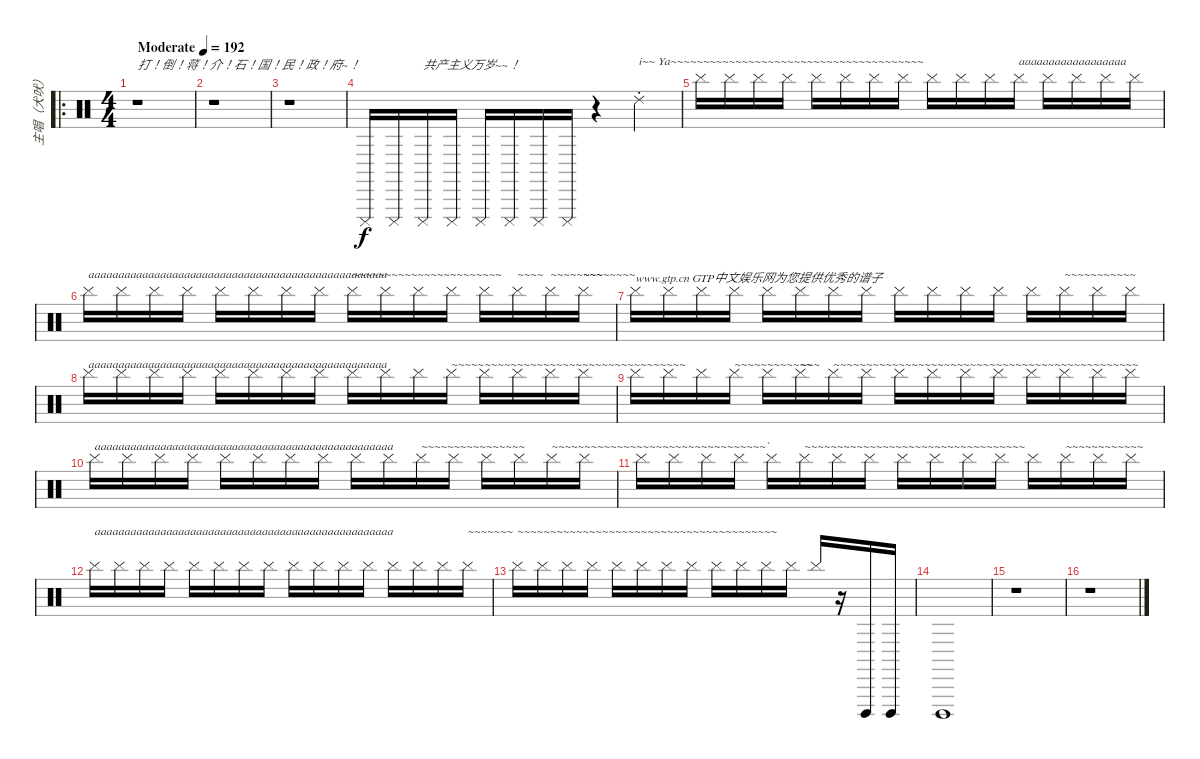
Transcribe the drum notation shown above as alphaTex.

\track ("主唱（犬吠）" "主唱（犬吠）") {instrument percussion}
\staff {score}
\articulation defaults
\ro
\ts (4 4)
\tempo (192 "Moderate")
\clef neutral
\ks c
r.1{txt "打！倒！蒋！介！石！国！民！政！府~！" dy f} |
r.1 |
r.1 |
"Cuica (mute)".16 "Cuica (mute)".16 "Cuica (mute)".16{txt "共产主义万岁~~！"} "Cuica (mute)".16 "Cuica (mute)".16 "Cuica (mute)".16 "Cuica (mute)".16 "Cuica (mute)".16 r.4 "Ride (choke) 2".4{txt "i~~ Ya~~~~~~~~~~~~~~~~~~~~~~~~~~~~~~~~~~~~~~~"} |
"Cymbal (hit)".16 "Cymbal (hit)".16 "Cymbal (hit)".16 "Cymbal (hit)".16 "Cymbal (hit)".16 "Cymbal (hit)".16 "Cymbal (hit)".16 "Cymbal (hit)".16 "Cymbal (hit)".16 "Cymbal (hit)".16 "Cymbal (hit)".16 "Cymbal (hit)".16{txt "aaaaaaaaaaaaaaaaaa"} "Cymbal (hit)".16 "Cymbal (hit)".16 "Cymbal (hit)".16 "Cymbal (hit)".16 |
"Cymbal (hit)".16{txt "aaaaaaaaaaaaaaaaaaaaaaaaaaaaaaaaaaaaaaaaaaaaaaaaaa"} "Cymbal (hit)".16 "Cymbal (hit)".16 "Cymbal (hit)".16 "Cymbal (hit)".16 "Cymbal (hit)".16 "Cymbal (hit)".16 "Cymbal (hit)".16 "Cymbal (hit)".16{txt "~~~~~~~~~~~~~~~~~~~~~~~"} "Cymbal (hit)".16 "Cymbal (hit)".16 "Cymbal (hit)".16 "Cymbal (hit)".16 "Cymbal (hit)".16{txt "~~~~"} "Cymbal (hit)".16{txt "~~~~~~~~"} "Cymbal (hit)".16{txt "~~~~~~~~"} |
"Cymbal (hit)".16{txt "www.gtp.cn GTP中文娱乐网为您提供优秀的谱子"} "Cymbal (hit)".16 "Cymbal (hit)".16 "Cymbal (hit)".16 "Cymbal (hit)".16 "Cymbal (hit)".16 "Cymbal (hit)".16 "Cymbal (hit)".16 "Cymbal (hit)".16 "Cymbal (hit)".16 "Cymbal (hit)".16 "Cymbal (hit)".16 "Cymbal (hit)".16 "Cymbal (hit)".16{txt "~~~~~~~~~~~"} "Cymbal (hit)".16 "Cymbal (hit)".16 |
"Cymbal (hit)".16{txt "aaaaaaaaaaaaaaaaaaaaaaaaaaaaaaaaaaaaaaaaaaaaaaaaaa"} "Cymbal (hit)".16 "Cymbal (hit)".16 "Cymbal (hit)".16 "Cymbal (hit)".16 "Cymbal (hit)".16 "Cymbal (hit)".16 "Cymbal (hit)".16 "Cymbal (hit)".16 "Cymbal (hit)".16 "Cymbal (hit)".16 "Cymbal (hit)".16{txt "~~~~~"} "Cymbal (hit)".16{txt "~~~~~~~~~~~~~~~~~~~~~~~~~~~~~~~"} "Cymbal (hit)".16 "Cymbal (hit)".16 "Cymbal (hit)".16 |
"Cymbal (hit)".16 "Cymbal (hit)".16 "Cymbal (hit)".16 "Cymbal (hit)".16{txt "~~~~~~~~~~~~"} "Cymbal (hit)".16 "Cymbal (hit)".16{txt "~~~"} "Cymbal (hit)".16{txt "~~~~~~~~~~~~~~~~~~~~~~~~~~~~~~~~~~~~~~~~~~~~~~~"} "Cymbal (hit)".16 "Cymbal (hit)".16 "Cymbal (hit)".16 "Cymbal (hit)".16 "Cymbal (hit)".16 "Cymbal (hit)".16 "Cymbal (hit)".16 "Cymbal (hit)".16 "Cymbal (hit)".16 |
"Cymbal (hit)".16{txt "aaaaaaaaaaaaaaaaaaaaaaaaaaaaaaaaaaaaaaaaaaaaaaaaaa"} "Cymbal (hit)".16 "Cymbal (hit)".16 "Cymbal (hit)".16 "Cymbal (hit)".16 "Cymbal (hit)".16 "Cymbal (hit)".16 "Cymbal (hit)".16 "Cymbal (hit)".16 "Cymbal (hit)".16 "Cymbal (hit)".16{txt "~~~~~~~~~~~~~~~~"} "Cymbal (hit)".16 "Cymbal (hit)".16 "Cymbal (hit)".16 "Cymbal (hit)".16{txt "~~~~~~~~~~~~~~~~~~~~~~~~~~~~~~~~~`"} "Cymbal (hit)".16 |
"Cymbal (hit)".16 "Cymbal (hit)".16 "Cymbal (hit)".16 "Cymbal (hit)".16 "Cymbal (hit)".16 "Cymbal (hit)".16{txt "~~~~~~~~~~~~~~~~~~~~~~~~~~~~~~~~~~"} "Cymbal (hit)".16 "Cymbal (hit)".16 "Cymbal (hit)".16 "Cymbal (hit)".16 "Cymbal (hit)".16 "Cymbal (hit)".16 "Cymbal (hit)".16 "Cymbal (hit)".16{txt "~~~~~~~~~~~~"} "Cymbal (hit)".16 "Cymbal (hit)".16 |
"Cymbal (hit)".16{txt "aaaaaaaaaaaaaaaaaaaaaaaaaaaaaaaaaaaaaaaaaaaaaaaaaa"} "Cymbal (hit)".16 "Cymbal (hit)".16 "Cymbal (hit)".16 "Cymbal (hit)".16 "Cymbal (hit)".16 "Cymbal (hit)".16 "Cymbal (hit)".16 "Cymbal (hit)".16 "Cymbal (hit)".16 "Cymbal (hit)".16 "Cymbal (hit)".16 "Cymbal (hit)".16 "Cymbal (hit)".16 "Cymbal (hit)".16 "Cymbal (hit)".16{txt "~~~~~~~"} |
"Cymbal (hit)".16{txt "~~~~~~~~~~~~~~~~~~~~~~~~~~~~~~~~~~~~~~~~"} "Cymbal (hit)".16 "Cymbal (hit)".16 "Cymbal (hit)".16 "Cymbal (hit)".16 "Cymbal (hit)".16 "Cymbal (hit)".16 "Cymbal (hit)".16 "Cymbal (hit)".16 "Cymbal (hit)".16 "Cymbal (hit)".16 "Cymbal (hit)".16 "Cymbal (hit)".16 r.16 "Cuica (open)".16 "Cuica (open)".16 |
"Cuica (open)".1 |
r.1 |
r.1
